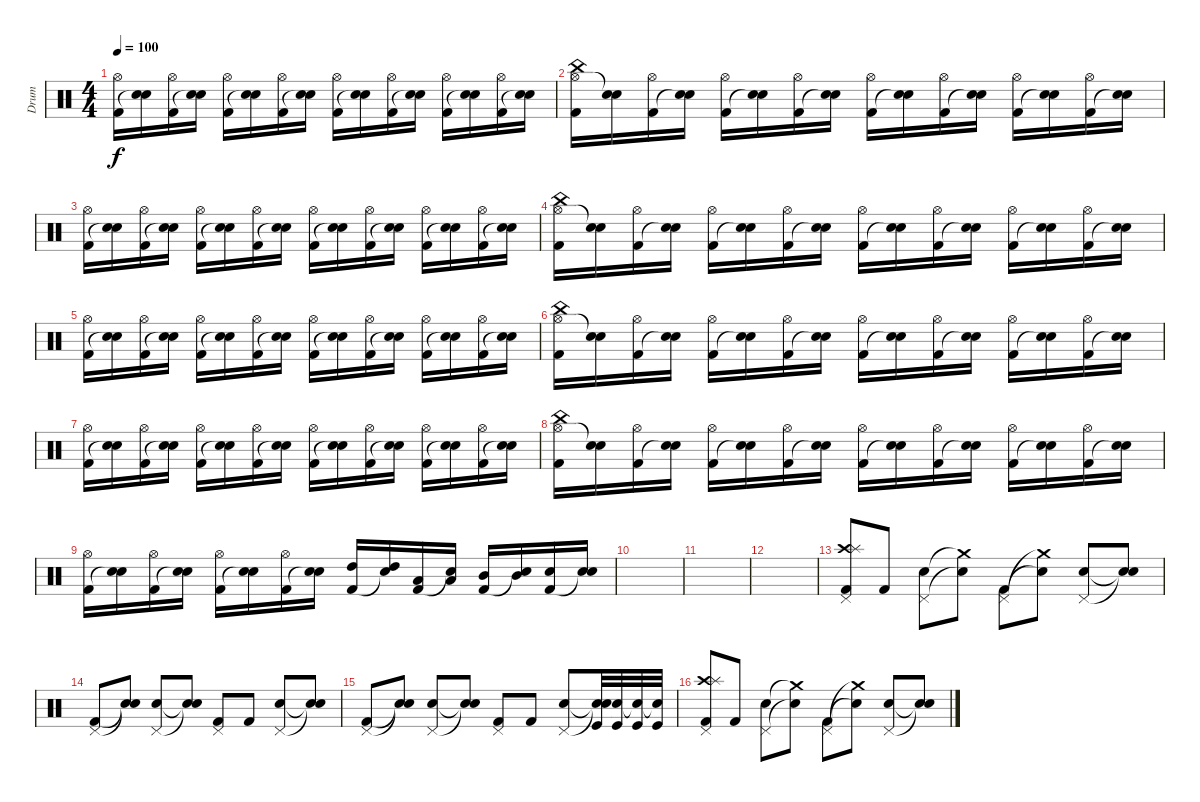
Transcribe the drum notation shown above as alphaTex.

\track ("Drum" "Drum") {instrument percussion}
\staff {score}
\articulation defaults
\ts (4 4)
\tempo 100
\clef neutral
\ks c
("Hi-Hat (open)" "Kick (hit) 2").16{dy f} ("Electric Snare (hit)" "Snare (hit)"{t}).16 ("Hi-Hat (open)" "Kick (hit) 2").16 ("Electric Snare (hit)" "Snare (hit)"{t}).16 ("Hi-Hat (open)" "Kick (hit) 2").16 ("Electric Snare (hit)" "Snare (hit)"{t}).16 ("Hi-Hat (open)" "Kick (hit) 2").16 ("Electric Snare (hit)" "Snare (hit)"{t}).16 ("Hi-Hat (open)" "Kick (hit) 2").16 ("Electric Snare (hit)" "Snare (hit)"{t}).16 ("Hi-Hat (open)" "Kick (hit) 2").16 ("Electric Snare (hit)" "Snare (hit)"{t}).16 ("Hi-Hat (open)" "Kick (hit) 2").16 ("Electric Snare (hit)" "Snare (hit)"{t}).16 ("Hi-Hat (open)" "Kick (hit) 2").16 ("Electric Snare (hit)" "Snare (hit)"{t}).16 |
("China (hit)" "Hi-Hat (open)" "Kick (hit) 2").16 ("Electric Snare (hit)" "Snare (hit)"{t}).16 ("Hi-Hat (open)" "Kick (hit) 2").16 ("Electric Snare (hit)" "Snare (hit)"{t}).16 ("Hi-Hat (open)" "Kick (hit) 2").16 ("Electric Snare (hit)" "Snare (hit)"{t}).16 ("Hi-Hat (open)" "Kick (hit) 2").16 ("Electric Snare (hit)" "Snare (hit)"{t}).16 ("Hi-Hat (open)" "Kick (hit) 2").16 ("Electric Snare (hit)" "Snare (hit)"{t}).16 ("Hi-Hat (open)" "Kick (hit) 2").16 ("Electric Snare (hit)" "Snare (hit)"{t}).16 ("Hi-Hat (open)" "Kick (hit) 2").16 ("Electric Snare (hit)" "Snare (hit)"{t}).16 ("Hi-Hat (open)" "Kick (hit) 2").16 ("Electric Snare (hit)" "Snare (hit)"{t}).16 |
("Hi-Hat (open)" "Kick (hit) 2").16 ("Electric Snare (hit)" "Snare (hit)"{t}).16 ("Hi-Hat (open)" "Kick (hit) 2").16 ("Electric Snare (hit)" "Snare (hit)"{t}).16 ("Hi-Hat (open)" "Kick (hit) 2").16 ("Electric Snare (hit)" "Snare (hit)"{t}).16 ("Hi-Hat (open)" "Kick (hit) 2").16 ("Electric Snare (hit)" "Snare (hit)"{t}).16 ("Hi-Hat (open)" "Kick (hit) 2").16 ("Electric Snare (hit)" "Snare (hit)"{t}).16 ("Hi-Hat (open)" "Kick (hit) 2").16 ("Electric Snare (hit)" "Snare (hit)"{t}).16 ("Hi-Hat (open)" "Kick (hit) 2").16 ("Electric Snare (hit)" "Snare (hit)"{t}).16 ("Hi-Hat (open)" "Kick (hit) 2").16 ("Electric Snare (hit)" "Snare (hit)"{t}).16 |
("China (hit)" "Hi-Hat (open)" "Kick (hit) 2").16 ("Electric Snare (hit)" "Snare (hit)"{t}).16 ("Hi-Hat (open)" "Kick (hit) 2").16 ("Electric Snare (hit)" "Snare (hit)"{t}).16 ("Hi-Hat (open)" "Kick (hit) 2").16 ("Electric Snare (hit)" "Snare (hit)"{t}).16 ("Hi-Hat (open)" "Kick (hit) 2").16 ("Electric Snare (hit)" "Snare (hit)"{t}).16 ("Hi-Hat (open)" "Kick (hit) 2").16 ("Electric Snare (hit)" "Snare (hit)"{t}).16 ("Hi-Hat (open)" "Kick (hit) 2").16 ("Electric Snare (hit)" "Snare (hit)"{t}).16 ("Hi-Hat (open)" "Kick (hit) 2").16 ("Electric Snare (hit)" "Snare (hit)"{t}).16 ("Hi-Hat (open)" "Kick (hit) 2").16 ("Electric Snare (hit)" "Snare (hit)"{t}).16 |
("Hi-Hat (open)" "Kick (hit) 2").16 ("Electric Snare (hit)" "Snare (hit)"{t}).16 ("Hi-Hat (open)" "Kick (hit) 2").16 ("Electric Snare (hit)" "Snare (hit)"{t}).16 ("Hi-Hat (open)" "Kick (hit) 2").16 ("Electric Snare (hit)" "Snare (hit)"{t}).16 ("Hi-Hat (open)" "Kick (hit) 2").16 ("Electric Snare (hit)" "Snare (hit)"{t}).16 ("Hi-Hat (open)" "Kick (hit) 2").16 ("Electric Snare (hit)" "Snare (hit)"{t}).16 ("Hi-Hat (open)" "Kick (hit) 2").16 ("Electric Snare (hit)" "Snare (hit)"{t}).16 ("Hi-Hat (open)" "Kick (hit) 2").16 ("Electric Snare (hit)" "Snare (hit)"{t}).16 ("Hi-Hat (open)" "Kick (hit) 2").16 ("Electric Snare (hit)" "Snare (hit)"{t}).16 |
("China (hit)" "Hi-Hat (open)" "Kick (hit) 2").16 ("Electric Snare (hit)" "Snare (hit)"{t}).16 ("Hi-Hat (open)" "Kick (hit) 2").16 ("Electric Snare (hit)" "Snare (hit)"{t}).16 ("Hi-Hat (open)" "Kick (hit) 2").16 ("Electric Snare (hit)" "Snare (hit)"{t}).16 ("Hi-Hat (open)" "Kick (hit) 2").16 ("Electric Snare (hit)" "Snare (hit)"{t}).16 ("Hi-Hat (open)" "Kick (hit) 2").16 ("Electric Snare (hit)" "Snare (hit)"{t}).16 ("Hi-Hat (open)" "Kick (hit) 2").16 ("Electric Snare (hit)" "Snare (hit)"{t}).16 ("Hi-Hat (open)" "Kick (hit) 2").16 ("Electric Snare (hit)" "Snare (hit)"{t}).16 ("Hi-Hat (open)" "Kick (hit) 2").16 ("Electric Snare (hit)" "Snare (hit)"{t}).16 |
("Hi-Hat (open)" "Kick (hit) 2").16 ("Electric Snare (hit)" "Snare (hit)"{t}).16 ("Hi-Hat (open)" "Kick (hit) 2").16 ("Electric Snare (hit)" "Snare (hit)"{t}).16 ("Hi-Hat (open)" "Kick (hit) 2").16 ("Electric Snare (hit)" "Snare (hit)"{t}).16 ("Hi-Hat (open)" "Kick (hit) 2").16 ("Electric Snare (hit)" "Snare (hit)"{t}).16 ("Hi-Hat (open)" "Kick (hit) 2").16 ("Electric Snare (hit)" "Snare (hit)"{t}).16 ("Hi-Hat (open)" "Kick (hit) 2").16 ("Electric Snare (hit)" "Snare (hit)"{t}).16 ("Hi-Hat (open)" "Kick (hit) 2").16 ("Electric Snare (hit)" "Snare (hit)"{t}).16 ("Hi-Hat (open)" "Kick (hit) 2").16 ("Electric Snare (hit)" "Snare (hit)"{t}).16 |
("China (hit)" "Hi-Hat (open)" "Kick (hit) 2").16 ("Electric Snare (hit)" "Snare (hit)"{t}).16 ("Hi-Hat (open)" "Kick (hit) 2").16 ("Electric Snare (hit)" "Snare (hit)"{t}).16 ("Hi-Hat (open)" "Kick (hit) 2").16 ("Electric Snare (hit)" "Snare (hit)"{t}).16 ("Hi-Hat (open)" "Kick (hit) 2").16 ("Electric Snare (hit)" "Snare (hit)"{t}).16 ("Hi-Hat (open)" "Kick (hit) 2").16 ("Electric Snare (hit)" "Snare (hit)"{t}).16 ("Hi-Hat (open)" "Kick (hit) 2").16 ("Electric Snare (hit)" "Snare (hit)"{t}).16 ("Hi-Hat (open)" "Kick (hit) 2").16 ("Electric Snare (hit)" "Snare (hit)"{t}).16 ("Hi-Hat (open)" "Kick (hit) 2").16 ("Electric Snare (hit)" "Snare (hit)"{t}).16 |
("Hi-Hat (open)" "Kick (hit) 2").16 ("Electric Snare (hit)" "Snare (hit)"{t}).16 ("Hi-Hat (open)" "Kick (hit) 2").16 ("Electric Snare (hit)" "Snare (hit)"{t}).16 ("Hi-Hat (open)" "Kick (hit) 2").16 ("Electric Snare (hit)" "Snare (hit)"{t}).16 ("Hi-Hat (open)" "Kick (hit) 2").16 ("Electric Snare (hit)" "Snare (hit)"{t}).16 ("High Tom (hit)" "Kick (hit) 2").16 ("High Tom (hit)" "Snare (hit)"{t}).16 ("Low Tom (hit)" "Kick (hit) 2").16 ("Low Tom (hit)" "Snare (hit)"{t}).16 ("Mid Tom (hit)" "Kick (hit) 2").16 ("Mid Tom (hit)" "Snare (hit)"{t}).16 ("Snare (hit) 2" "Kick (hit) 2").16 ("Snare (hit) 2" "Snare (hit)"{t}).16 |
|
|
|
("Crash high (hit)" "Splash (hit)" "Pedal Hi-Hat (hit)" "Kick (hit) 2").8 "Kick (hit) 2".8 ("Electric Snare (hit)" "Pedal Hi-Hat (hit)").8 ("Crash medium (hit)"{t} "Snare (hit)"{t}).8 ("Pedal Hi-Hat (hit)" "Kick (hit) 2").8 ("Crash medium (hit)"{t} "Snare (hit)"{t}).8 ("Pedal Hi-Hat (hit)" "Electric Snare (hit)").8 ("Snare (hit)"{t} "Snare (hit)"{t}).8 |
("Pedal Hi-Hat (hit)" "Kick (hit) 2").8 ("Snare (hit)"{t} "Snare (hit)"{t}).8 ("Pedal Hi-Hat (hit)" "Electric Snare (hit)").8 ("Snare (hit)"{t} "Snare (hit)"{t}).8 ("Pedal Hi-Hat (hit)" "Kick (hit) 2").8 "Kick (hit) 2".8 ("Pedal Hi-Hat (hit)" "Electric Snare (hit)").8 ("Snare (hit)"{t} "Snare (hit)"{t}).8 |
("Pedal Hi-Hat (hit)" "Kick (hit) 2").8 ("Snare (hit)"{t} "Snare (hit)"{t}).8 ("Pedal Hi-Hat (hit)" "Electric Snare (hit)").8 ("Snare (hit)"{t} "Snare (hit)"{t}).8 ("Pedal Hi-Hat (hit)" "Kick (hit) 2").8 "Kick (hit) 2".8 ("Pedal Hi-Hat (hit)" "Electric Snare (hit)").8 ("Snare (hit)"{t} "Snare (hit)"{t} "Kick (hit)").32 ("Snare (hit)"{t} "Kick (hit)").32 ("Snare (hit)"{t} "Kick (hit)").32 ("Snare (hit)"{t} "Kick (hit)").32 |
("Crash high (hit)" "Splash (hit)" "Pedal Hi-Hat (hit)" "Kick (hit) 2").8 "Kick (hit) 2".8 ("Electric Snare (hit)" "Pedal Hi-Hat (hit)").8 ("Crash medium (hit)"{t} "Snare (hit)"{t}).8 ("Pedal Hi-Hat (hit)" "Kick (hit) 2").8 ("Crash medium (hit)"{t} "Snare (hit)"{t}).8 ("Pedal Hi-Hat (hit)" "Electric Snare (hit)").8 ("Snare (hit)"{t} "Snare (hit)"{t}).8
